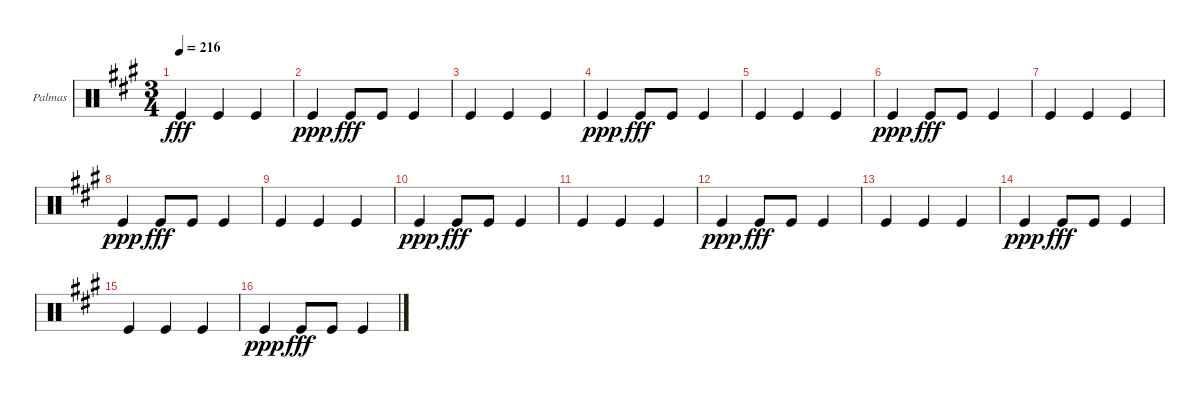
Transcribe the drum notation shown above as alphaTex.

\defaultSystemsLayout 4
\bracketExtendMode groupsimilarinstruments
\firstSystemTrackNameOrientation horizontal
\otherSystemsTrackNameOrientation horizontal
\track ("Palmas" "Palmas") {instrument percussion}
\staff {score}
\articulation defaults
\ts (3 4)
\tempo 216
\clef neutral
\ks a "Kick (hit)".4{dy fff} "Kick (hit)".4 "Kick (hit)".4
|
"Kick (hit)".4{dy ppp} "Kick (hit)".8{dy fff} "Kick (hit)".8 "Kick (hit)".4 |
"Kick (hit)".4 "Kick (hit)".4 "Kick (hit)".4 |
"Kick (hit)".4{dy ppp} "Kick (hit)".8{dy fff} "Kick (hit)".8 "Kick (hit)".4 |
"Kick (hit)".4 "Kick (hit)".4 "Kick (hit)".4 |
"Kick (hit)".4{dy ppp} "Kick (hit)".8{dy fff} "Kick (hit)".8 "Kick (hit)".4 |
"Kick (hit)".4 "Kick (hit)".4 "Kick (hit)".4 |
"Kick (hit)".4{dy ppp} "Kick (hit)".8{dy fff} "Kick (hit)".8 "Kick (hit)".4 |
"Kick (hit)".4 "Kick (hit)".4 "Kick (hit)".4 |
"Kick (hit)".4{dy ppp} "Kick (hit)".8{dy fff} "Kick (hit)".8 "Kick (hit)".4 |
"Kick (hit)".4 "Kick (hit)".4 "Kick (hit)".4 |
"Kick (hit)".4{dy ppp} "Kick (hit)".8{dy fff} "Kick (hit)".8 "Kick (hit)".4 |
"Kick (hit)".4 "Kick (hit)".4 "Kick (hit)".4 |
"Kick (hit)".4{dy ppp} "Kick (hit)".8{dy fff} "Kick (hit)".8 "Kick (hit)".4 |
"Kick (hit)".4 "Kick (hit)".4 "Kick (hit)".4 |
"Kick (hit)".4{dy ppp} "Kick (hit)".8{dy fff} "Kick (hit)".8 "Kick (hit)".4
